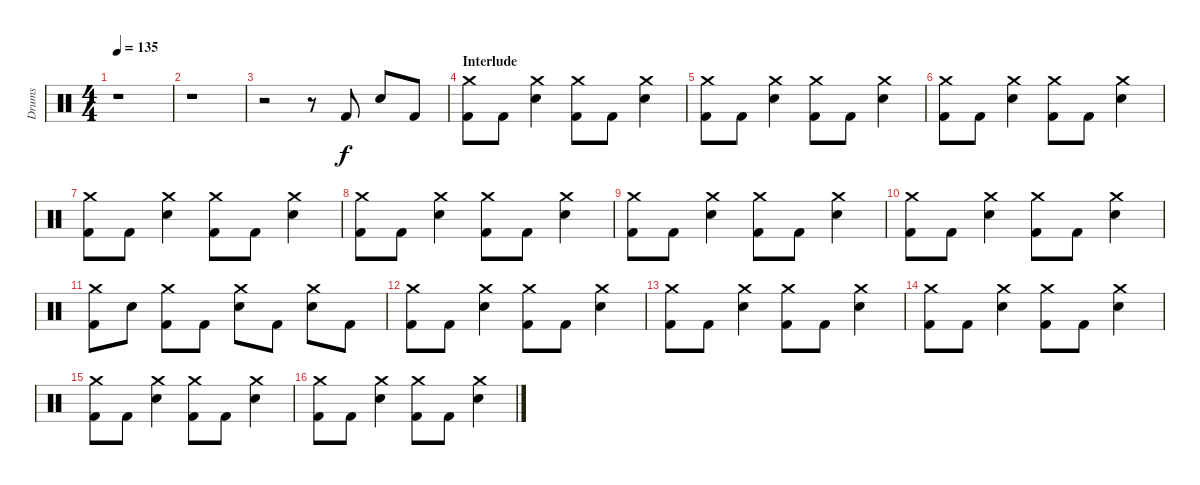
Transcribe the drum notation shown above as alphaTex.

\track ("Drums" "Drums") {instrument percussion}
\staff {score}
\articulation defaults
\ts (4 4)
\tempo 135
\clef neutral
\ks c
r.1{dy f} |
r.1 |
r.2 r.8 "Kick (hit) 2".8 "Electric Snare (hit)".8 "Kick (hit) 2".8 |
\section ("" "Interlude")
("Crash medium (hit)" "Kick (hit) 2").8 "Kick (hit) 2".8 ("Crash medium (hit)" "Electric Snare (hit)").4 ("Crash medium (hit)" "Kick (hit) 2").8 "Kick (hit) 2".8 ("Crash medium (hit)" "Electric Snare (hit)").4 |
("Crash medium (hit)" "Kick (hit) 2").8 "Kick (hit) 2".8 ("Crash medium (hit)" "Electric Snare (hit)").4 ("Crash medium (hit)" "Kick (hit) 2").8 "Kick (hit) 2".8 ("Crash medium (hit)" "Electric Snare (hit)").4 |
("Crash medium (hit)" "Kick (hit) 2").8 "Kick (hit) 2".8 ("Crash medium (hit)" "Electric Snare (hit)").4 ("Crash medium (hit)" "Kick (hit) 2").8 "Kick (hit) 2".8 ("Crash medium (hit)" "Electric Snare (hit)").4 |
("Crash medium (hit)" "Kick (hit) 2").8 "Kick (hit) 2".8 ("Crash medium (hit)" "Electric Snare (hit)").4 ("Crash medium (hit)" "Kick (hit) 2").8 "Kick (hit) 2".8 ("Crash medium (hit)" "Electric Snare (hit)").4 |
("Crash medium (hit)" "Kick (hit) 2").8 "Kick (hit) 2".8 ("Crash medium (hit)" "Electric Snare (hit)").4 ("Crash medium (hit)" "Kick (hit) 2").8 "Kick (hit) 2".8 ("Crash medium (hit)" "Electric Snare (hit)").4 |
("Crash medium (hit)" "Kick (hit) 2").8 "Kick (hit) 2".8 ("Crash medium (hit)" "Electric Snare (hit)").4 ("Crash medium (hit)" "Kick (hit) 2").8 "Kick (hit) 2".8 ("Crash medium (hit)" "Electric Snare (hit)").4 |
("Crash medium (hit)" "Kick (hit) 2").8 "Kick (hit) 2".8 ("Crash medium (hit)" "Electric Snare (hit)").4 ("Crash medium (hit)" "Kick (hit) 2").8 "Kick (hit) 2".8 ("Crash medium (hit)" "Electric Snare (hit)").4 |
("Crash medium (hit)" "Kick (hit) 2").8 "Electric Snare (hit)".8 ("Crash medium (hit)" "Kick (hit) 2").8 "Kick (hit) 2".8 ("Crash medium (hit)" "Electric Snare (hit)").8 "Kick (hit) 2".8 ("Crash medium (hit)" "Electric Snare (hit)").8 "Kick (hit) 2".8 |
("Crash medium (hit)" "Kick (hit) 2").8 "Kick (hit) 2".8 ("Crash medium (hit)" "Electric Snare (hit)").4 ("Crash medium (hit)" "Kick (hit) 2").8 "Kick (hit) 2".8 ("Crash medium (hit)" "Electric Snare (hit)").4 |
("Crash medium (hit)" "Kick (hit) 2").8 "Kick (hit) 2".8 ("Crash medium (hit)" "Electric Snare (hit)").4 ("Crash medium (hit)" "Kick (hit) 2").8 "Kick (hit) 2".8 ("Crash medium (hit)" "Electric Snare (hit)").4 |
("Crash medium (hit)" "Kick (hit) 2").8 "Kick (hit) 2".8 ("Crash medium (hit)" "Electric Snare (hit)").4 ("Crash medium (hit)" "Kick (hit) 2").8 "Kick (hit) 2".8 ("Crash medium (hit)" "Electric Snare (hit)").4 |
("Crash medium (hit)" "Kick (hit) 2").8 "Kick (hit) 2".8 ("Crash medium (hit)" "Electric Snare (hit)").4 ("Crash medium (hit)" "Kick (hit) 2").8 "Kick (hit) 2".8 ("Crash medium (hit)" "Electric Snare (hit)").4 |
("Crash medium (hit)" "Kick (hit) 2").8 "Kick (hit) 2".8 ("Crash medium (hit)" "Electric Snare (hit)").4 ("Crash medium (hit)" "Kick (hit) 2").8 "Kick (hit) 2".8 ("Crash medium (hit)" "Electric Snare (hit)").4
